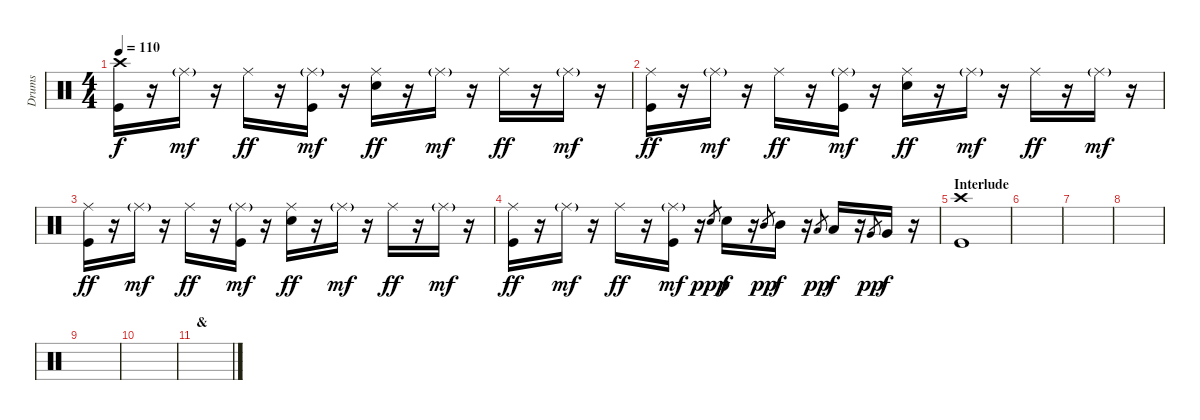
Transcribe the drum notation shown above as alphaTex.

\track ("Drums" "Drums") {instrument percussion}
\staff {score}
\articulation defaults
\ts (4 4)
\tempo 110
\clef neutral
\ks c
("Crash high (hit)" "Kick (hit)").16{dy f} r.16 "Ride (middle)"{g}.16{dy mf} r.16 "Ride (middle)".16{dy ff} r.16 ("Ride (middle)"{g} "Kick (hit)").16{dy mf} r.16 ("Ride (middle)" "Snare (hit) 2").16{dy ff} r.16 "Ride (middle)"{g}.16{dy mf} r.16 "Ride (middle)".16{dy ff} r.16 "Ride (middle)"{g}.16{dy mf} r.16 |
("Ride (middle)" "Kick (hit)").16{dy ff} r.16 "Ride (middle)"{g}.16{dy mf} r.16 "Ride (middle)".16{dy ff} r.16 ("Ride (middle)"{g} "Kick (hit)").16{dy mf} r.16 ("Ride (middle)" "Snare (hit) 2").16{dy ff} r.16 "Ride (middle)"{g}.16{dy mf} r.16 "Ride (middle)".16{dy ff} r.16 "Ride (middle)"{g}.16{dy mf} r.16 |
("Ride (middle)" "Kick (hit)").16{dy ff} r.16 "Ride (middle)"{g}.16{dy mf} r.16 "Ride (middle)".16{dy ff} r.16 ("Ride (middle)"{g} "Kick (hit)").16{dy mf} r.16 ("Ride (middle)" "Snare (hit) 2").16{dy ff} r.16 "Ride (middle)"{g}.16{dy mf} r.16 "Ride (middle)".16{dy ff} r.16 "Ride (middle)"{g}.16{dy mf} r.16 |
("Ride (middle)" "Kick (hit)").16{dy ff} r.16 "Ride (middle)"{g}.16{dy mf} r.16 "Ride (middle)".16{dy ff} r.16 ("Ride (middle)"{g} "Kick (hit)").16{dy mf} r.16 "Snare (hit) 2".8{gr dy ppp} "Snare (hit) 2".16{dy f} r.16 "Mid Tom (hit)".8{gr dy pp} "Mid Tom (hit)".16{dy f} r.16 "Low Tom (hit)".8{gr dy pp} "Low Tom (hit)".16{dy f} r.16 "Very Low Tom (hit)".8{gr dy pp} "Very Low Tom (hit)".16{dy f} r.16 |
\section ("" "Interlude")
("Crash high (hit)" "Kick (hit)").1 |
|
|
|
|
|
\section ("" "&")
